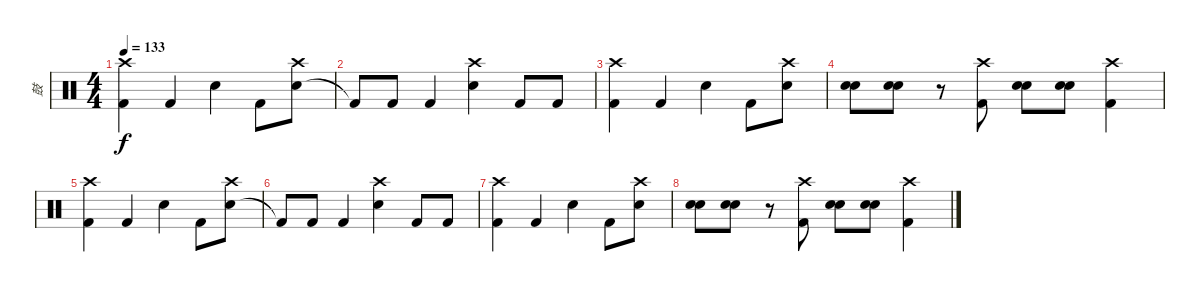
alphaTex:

\track ("鼓" "鼓") {instrument percussion}
\staff {score}
\articulation defaults
\ts (4 4)
\tempo 133
\clef neutral
\ks c
("Kick (hit) 2" "Crash high (hit)").4{dy f} "Kick (hit) 2".4 "Electric Snare (hit)".4 "Kick (hit) 2".8 ("Electric Snare (hit)" "Crash high (hit)").8 |
"Kick (hit) 2"{t}.8 "Kick (hit) 2".8 "Kick (hit) 2".4 ("Electric Snare (hit)" "Crash high (hit)").4 "Kick (hit) 2".8 "Kick (hit) 2".8 |
("Kick (hit) 2" "Crash high (hit)").4 "Kick (hit) 2".4 "Electric Snare (hit)".4 "Kick (hit) 2".8 ("Electric Snare (hit)" "Crash high (hit)").8 |
("Electric Snare (hit)" "Snare (hit) 2").8 ("Electric Snare (hit)" "Snare (hit) 2").8 r.8 ("Kick (hit) 2" "Crash high (hit)").8 ("Electric Snare (hit)" "Snare (hit) 2").8 ("Electric Snare (hit)" "Snare (hit) 2").8 ("Kick (hit) 2" "Crash high (hit)").4 |
("Kick (hit) 2" "Crash high (hit)").4 "Kick (hit) 2".4 "Electric Snare (hit)".4 "Kick (hit) 2".8 ("Electric Snare (hit)" "Crash high (hit)").8 |
"Kick (hit) 2"{t}.8 "Kick (hit) 2".8 "Kick (hit) 2".4 ("Electric Snare (hit)" "Crash high (hit)").4 "Kick (hit) 2".8 "Kick (hit) 2".8 |
("Kick (hit) 2" "Crash high (hit)").4 "Kick (hit) 2".4 "Electric Snare (hit)".4 "Kick (hit) 2".8 ("Electric Snare (hit)" "Crash high (hit)").8 |
("Electric Snare (hit)" "Snare (hit) 2").8 ("Electric Snare (hit)" "Snare (hit) 2").8 r.8 ("Kick (hit) 2" "Crash high (hit)").8 ("Electric Snare (hit)" "Snare (hit) 2").8 ("Electric Snare (hit)" "Snare (hit) 2").8 ("Kick (hit) 2" "Crash high (hit)").4
